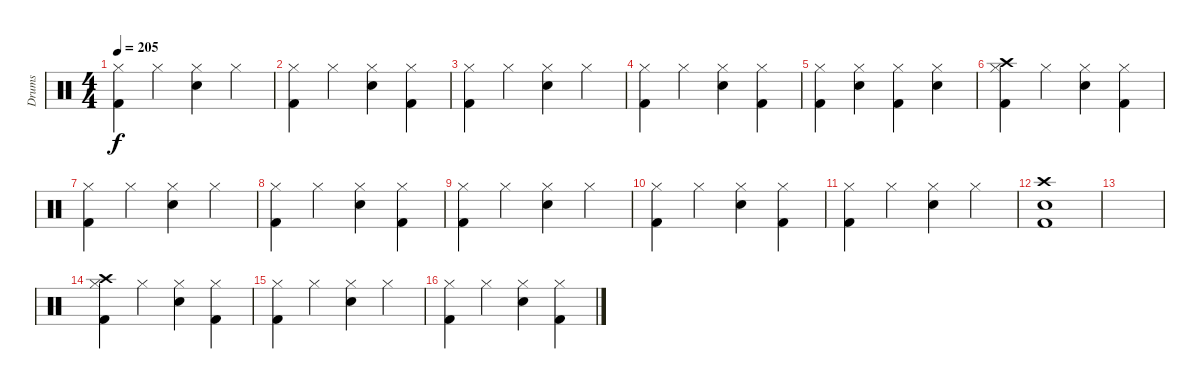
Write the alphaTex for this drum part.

\track ("Drums" "Drums") {instrument percussion}
\staff {score}
\articulation defaults
\ts (4 4)
\tempo 205
\clef neutral
\ks c
("Kick (hit) 2" "Hi-Hat (closed)").4{dy f} "Hi-Hat (closed)".4 ("Snare (hit) 2" "Hi-Hat (closed)").4 "Hi-Hat (closed)".4 |
("Kick (hit) 2" "Hi-Hat (closed)").4 "Hi-Hat (closed)".4 ("Snare (hit) 2" "Hi-Hat (closed)").4 ("Kick (hit) 2" "Hi-Hat (closed)").4 |
("Kick (hit) 2" "Hi-Hat (closed)").4 "Hi-Hat (closed)".4 ("Snare (hit) 2" "Hi-Hat (closed)").4 "Hi-Hat (closed)".4 |
("Kick (hit) 2" "Hi-Hat (closed)").4 "Hi-Hat (closed)".4 ("Snare (hit) 2" "Hi-Hat (closed)").4 ("Kick (hit) 2" "Hi-Hat (closed)").4 |
("Kick (hit) 2" "Hi-Hat (closed)").4 ("Snare (hit) 2" "Hi-Hat (closed)").4 ("Kick (hit) 2" "Hi-Hat (closed)").4 ("Snare (hit) 2" "Hi-Hat (closed)").4 |
("Crash high (hit)" "Kick (hit) 2" "Hi-Hat (closed)").4 "Hi-Hat (closed)".4 ("Snare (hit) 2" "Hi-Hat (closed)").4 ("Kick (hit) 2" "Hi-Hat (closed)").4 |
("Kick (hit) 2" "Hi-Hat (closed)").4 "Hi-Hat (closed)".4 ("Snare (hit) 2" "Hi-Hat (closed)").4 "Hi-Hat (closed)".4 |
("Kick (hit) 2" "Hi-Hat (closed)").4 "Hi-Hat (closed)".4 ("Snare (hit) 2" "Hi-Hat (closed)").4 ("Kick (hit) 2" "Hi-Hat (closed)").4 |
("Kick (hit) 2" "Hi-Hat (closed)").4 "Hi-Hat (closed)".4 ("Snare (hit) 2" "Hi-Hat (closed)").4 "Hi-Hat (closed)".4 |
("Kick (hit) 2" "Hi-Hat (closed)").4 "Hi-Hat (closed)".4 ("Snare (hit) 2" "Hi-Hat (closed)").4 ("Kick (hit) 2" "Hi-Hat (closed)").4 |
("Kick (hit) 2" "Hi-Hat (closed)").4 "Hi-Hat (closed)".4 ("Snare (hit) 2" "Hi-Hat (closed)").4 "Hi-Hat (closed)".4 |
("Crash high (hit)" "Snare (hit) 2" "Kick (hit) 2").1 |
|
("Crash high (hit)" "Kick (hit) 2" "Hi-Hat (closed)").4 "Hi-Hat (closed)".4 ("Snare (hit) 2" "Hi-Hat (closed)").4 ("Kick (hit) 2" "Hi-Hat (closed)").4 |
("Kick (hit) 2" "Hi-Hat (closed)").4 "Hi-Hat (closed)".4 ("Snare (hit) 2" "Hi-Hat (closed)").4 "Hi-Hat (closed)".4 |
("Kick (hit) 2" "Hi-Hat (closed)").4 "Hi-Hat (closed)".4 ("Snare (hit) 2" "Hi-Hat (closed)").4 ("Kick (hit) 2" "Hi-Hat (closed)").4
